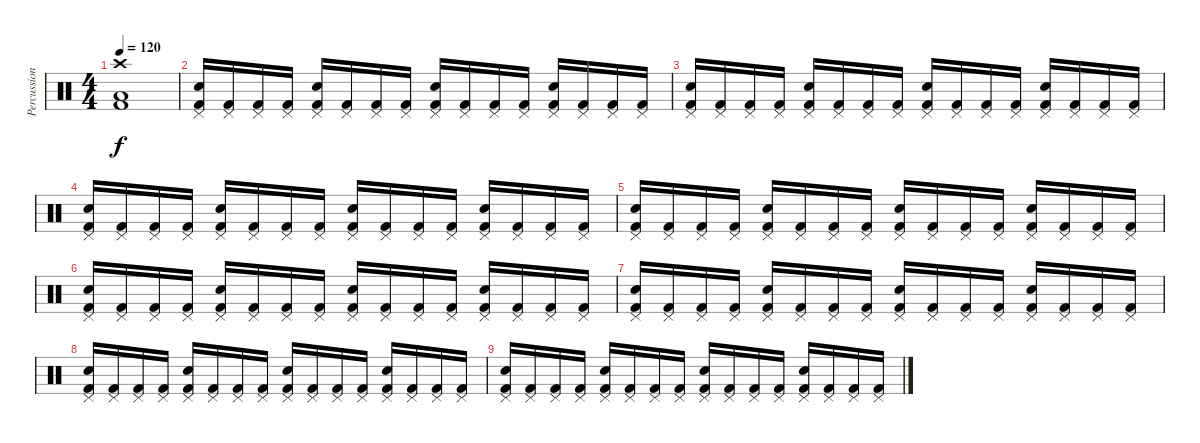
\track ("Percussion" "Percussion") {instrument percussion}
\staff {score}
\articulation defaults
\ts (4 4)
\tempo 120
\clef neutral
\ks c
("Low Floor Tom (hit)" "Kick (hit) 2" "Crash high (hit)").1{dy f} |
("Pedal Hi-Hat (hit)" "Snare (hit) 2" "Kick (hit) 2").16 ("Pedal Hi-Hat (hit)" "Kick (hit) 2").16 ("Pedal Hi-Hat (hit)" "Kick (hit) 2").16 ("Pedal Hi-Hat (hit)" "Kick (hit) 2").16 ("Pedal Hi-Hat (hit)" "Snare (hit) 2" "Kick (hit) 2").16 ("Pedal Hi-Hat (hit)" "Kick (hit) 2").16 ("Pedal Hi-Hat (hit)" "Kick (hit) 2").16 ("Pedal Hi-Hat (hit)" "Kick (hit) 2").16 ("Pedal Hi-Hat (hit)" "Snare (hit) 2" "Kick (hit) 2").16 ("Pedal Hi-Hat (hit)" "Kick (hit) 2").16 ("Pedal Hi-Hat (hit)" "Kick (hit) 2").16 ("Pedal Hi-Hat (hit)" "Kick (hit) 2").16 ("Pedal Hi-Hat (hit)" "Snare (hit) 2" "Kick (hit) 2").16 ("Pedal Hi-Hat (hit)" "Kick (hit) 2").16 ("Pedal Hi-Hat (hit)" "Kick (hit) 2").16 ("Pedal Hi-Hat (hit)" "Kick (hit) 2").16 |
("Pedal Hi-Hat (hit)" "Snare (hit) 2" "Kick (hit) 2").16 ("Pedal Hi-Hat (hit)" "Kick (hit) 2").16 ("Pedal Hi-Hat (hit)" "Kick (hit) 2").16 ("Pedal Hi-Hat (hit)" "Kick (hit) 2").16 ("Pedal Hi-Hat (hit)" "Snare (hit) 2" "Kick (hit) 2").16 ("Pedal Hi-Hat (hit)" "Kick (hit) 2").16 ("Pedal Hi-Hat (hit)" "Kick (hit) 2").16 ("Pedal Hi-Hat (hit)" "Kick (hit) 2").16 ("Pedal Hi-Hat (hit)" "Snare (hit) 2" "Kick (hit) 2").16 ("Pedal Hi-Hat (hit)" "Kick (hit) 2").16 ("Pedal Hi-Hat (hit)" "Kick (hit) 2").16 ("Pedal Hi-Hat (hit)" "Kick (hit) 2").16 ("Pedal Hi-Hat (hit)" "Snare (hit) 2" "Kick (hit) 2").16 ("Pedal Hi-Hat (hit)" "Kick (hit) 2").16 ("Pedal Hi-Hat (hit)" "Kick (hit) 2").16 ("Pedal Hi-Hat (hit)" "Kick (hit) 2").16 |
("Pedal Hi-Hat (hit)" "Snare (hit) 2" "Kick (hit) 2").16 ("Pedal Hi-Hat (hit)" "Kick (hit) 2").16 ("Pedal Hi-Hat (hit)" "Kick (hit) 2").16 ("Pedal Hi-Hat (hit)" "Kick (hit) 2").16 ("Pedal Hi-Hat (hit)" "Snare (hit) 2" "Kick (hit) 2").16 ("Pedal Hi-Hat (hit)" "Kick (hit) 2").16 ("Pedal Hi-Hat (hit)" "Kick (hit) 2").16 ("Pedal Hi-Hat (hit)" "Kick (hit) 2").16 ("Pedal Hi-Hat (hit)" "Snare (hit) 2" "Kick (hit) 2").16 ("Pedal Hi-Hat (hit)" "Kick (hit) 2").16 ("Pedal Hi-Hat (hit)" "Kick (hit) 2").16 ("Pedal Hi-Hat (hit)" "Kick (hit) 2").16 ("Pedal Hi-Hat (hit)" "Snare (hit) 2" "Kick (hit) 2").16 ("Pedal Hi-Hat (hit)" "Kick (hit) 2").16 ("Pedal Hi-Hat (hit)" "Kick (hit) 2").16 ("Pedal Hi-Hat (hit)" "Kick (hit) 2").16 |
("Pedal Hi-Hat (hit)" "Snare (hit) 2" "Kick (hit) 2").16 ("Pedal Hi-Hat (hit)" "Kick (hit) 2").16 ("Pedal Hi-Hat (hit)" "Kick (hit) 2").16 ("Pedal Hi-Hat (hit)" "Kick (hit) 2").16 ("Pedal Hi-Hat (hit)" "Snare (hit) 2" "Kick (hit) 2").16 ("Pedal Hi-Hat (hit)" "Kick (hit) 2").16 ("Pedal Hi-Hat (hit)" "Kick (hit) 2").16 ("Pedal Hi-Hat (hit)" "Kick (hit) 2").16 ("Pedal Hi-Hat (hit)" "Snare (hit) 2" "Kick (hit) 2").16 ("Pedal Hi-Hat (hit)" "Kick (hit) 2").16 ("Pedal Hi-Hat (hit)" "Kick (hit) 2").16 ("Pedal Hi-Hat (hit)" "Kick (hit) 2").16 ("Pedal Hi-Hat (hit)" "Snare (hit) 2" "Kick (hit) 2").16 ("Pedal Hi-Hat (hit)" "Kick (hit) 2").16 ("Pedal Hi-Hat (hit)" "Kick (hit) 2").16 ("Pedal Hi-Hat (hit)" "Kick (hit) 2").16 |
("Pedal Hi-Hat (hit)" "Snare (hit) 2" "Kick (hit) 2").16 ("Pedal Hi-Hat (hit)" "Kick (hit) 2").16 ("Pedal Hi-Hat (hit)" "Kick (hit) 2").16 ("Pedal Hi-Hat (hit)" "Kick (hit) 2").16 ("Pedal Hi-Hat (hit)" "Snare (hit) 2" "Kick (hit) 2").16 ("Pedal Hi-Hat (hit)" "Kick (hit) 2").16 ("Pedal Hi-Hat (hit)" "Kick (hit) 2").16 ("Pedal Hi-Hat (hit)" "Kick (hit) 2").16 ("Pedal Hi-Hat (hit)" "Snare (hit) 2" "Kick (hit) 2").16 ("Pedal Hi-Hat (hit)" "Kick (hit) 2").16 ("Pedal Hi-Hat (hit)" "Kick (hit) 2").16 ("Pedal Hi-Hat (hit)" "Kick (hit) 2").16 ("Pedal Hi-Hat (hit)" "Snare (hit) 2" "Kick (hit) 2").16 ("Pedal Hi-Hat (hit)" "Kick (hit) 2").16 ("Pedal Hi-Hat (hit)" "Kick (hit) 2").16 ("Pedal Hi-Hat (hit)" "Kick (hit) 2").16 |
("Pedal Hi-Hat (hit)" "Snare (hit) 2" "Kick (hit) 2").16 ("Pedal Hi-Hat (hit)" "Kick (hit) 2").16 ("Pedal Hi-Hat (hit)" "Kick (hit) 2").16 ("Pedal Hi-Hat (hit)" "Kick (hit) 2").16 ("Pedal Hi-Hat (hit)" "Snare (hit) 2" "Kick (hit) 2").16 ("Pedal Hi-Hat (hit)" "Kick (hit) 2").16 ("Pedal Hi-Hat (hit)" "Kick (hit) 2").16 ("Pedal Hi-Hat (hit)" "Kick (hit) 2").16 ("Pedal Hi-Hat (hit)" "Snare (hit) 2" "Kick (hit) 2").16 ("Pedal Hi-Hat (hit)" "Kick (hit) 2").16 ("Pedal Hi-Hat (hit)" "Kick (hit) 2").16 ("Pedal Hi-Hat (hit)" "Kick (hit) 2").16 ("Pedal Hi-Hat (hit)" "Snare (hit) 2" "Kick (hit) 2").16 ("Pedal Hi-Hat (hit)" "Kick (hit) 2").16 ("Pedal Hi-Hat (hit)" "Kick (hit) 2").16 ("Pedal Hi-Hat (hit)" "Kick (hit) 2").16 |
("Pedal Hi-Hat (hit)" "Snare (hit) 2" "Kick (hit) 2").16 ("Pedal Hi-Hat (hit)" "Kick (hit) 2").16 ("Pedal Hi-Hat (hit)" "Kick (hit) 2").16 ("Pedal Hi-Hat (hit)" "Kick (hit) 2").16 ("Pedal Hi-Hat (hit)" "Snare (hit) 2" "Kick (hit) 2").16 ("Pedal Hi-Hat (hit)" "Kick (hit) 2").16 ("Pedal Hi-Hat (hit)" "Kick (hit) 2").16 ("Pedal Hi-Hat (hit)" "Kick (hit) 2").16 ("Pedal Hi-Hat (hit)" "Snare (hit) 2" "Kick (hit) 2").16 ("Pedal Hi-Hat (hit)" "Kick (hit) 2").16 ("Pedal Hi-Hat (hit)" "Kick (hit) 2").16 ("Pedal Hi-Hat (hit)" "Kick (hit) 2").16 ("Pedal Hi-Hat (hit)" "Snare (hit) 2" "Kick (hit) 2").16 ("Pedal Hi-Hat (hit)" "Kick (hit) 2").16 ("Pedal Hi-Hat (hit)" "Kick (hit) 2").16 ("Pedal Hi-Hat (hit)" "Kick (hit) 2").16 |
("Pedal Hi-Hat (hit)" "Snare (hit) 2" "Kick (hit) 2").16 ("Pedal Hi-Hat (hit)" "Kick (hit) 2").16 ("Pedal Hi-Hat (hit)" "Kick (hit) 2").16 ("Pedal Hi-Hat (hit)" "Kick (hit) 2").16 ("Pedal Hi-Hat (hit)" "Snare (hit) 2" "Kick (hit) 2").16 ("Pedal Hi-Hat (hit)" "Kick (hit) 2").16 ("Pedal Hi-Hat (hit)" "Kick (hit) 2").16 ("Pedal Hi-Hat (hit)" "Kick (hit) 2").16 ("Pedal Hi-Hat (hit)" "Snare (hit) 2" "Kick (hit) 2").16 ("Pedal Hi-Hat (hit)" "Kick (hit) 2").16 ("Pedal Hi-Hat (hit)" "Kick (hit) 2").16 ("Pedal Hi-Hat (hit)" "Kick (hit) 2").16 ("Pedal Hi-Hat (hit)" "Snare (hit) 2" "Kick (hit) 2").16 ("Pedal Hi-Hat (hit)" "Kick (hit) 2").16 ("Pedal Hi-Hat (hit)" "Kick (hit) 2").16 ("Pedal Hi-Hat (hit)" "Kick (hit) 2").16
